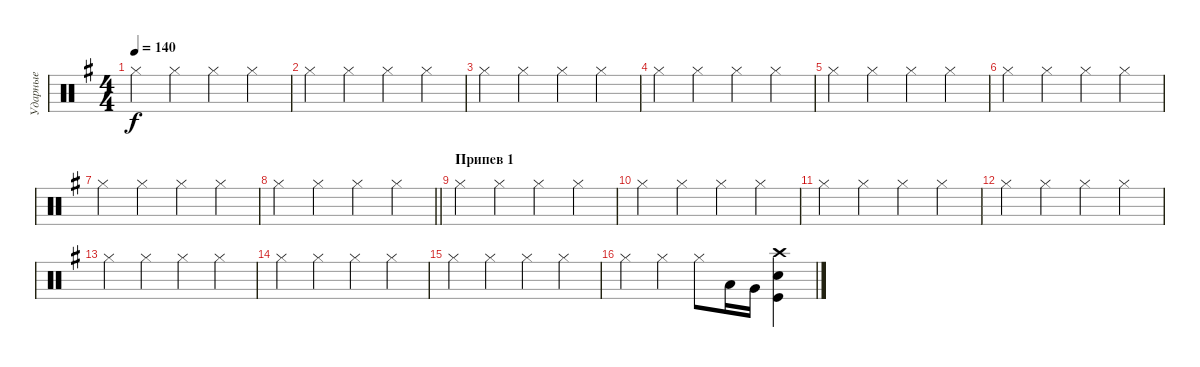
\track ("Ударные" "Ударные") {instrument percussion}
\staff {score}
\articulation defaults
\ts (4 4)
\tempo 140
\clef neutral
\ks g "Hi-Hat (closed)".4{dy f} "Hi-Hat (closed)".4 "Hi-Hat (closed)".4 "Hi-Hat (closed)".4
|
"Hi-Hat (closed)".4 "Hi-Hat (closed)".4 "Hi-Hat (closed)".4 "Hi-Hat (closed)".4 |
"Hi-Hat (closed)".4 "Hi-Hat (closed)".4 "Hi-Hat (closed)".4 "Hi-Hat (closed)".4 |
"Hi-Hat (closed)".4 "Hi-Hat (closed)".4 "Hi-Hat (closed)".4 "Hi-Hat (closed)".4 |
"Hi-Hat (closed)".4 "Hi-Hat (closed)".4 "Hi-Hat (closed)".4 "Hi-Hat (closed)".4 |
"Hi-Hat (closed)".4 "Hi-Hat (closed)".4 "Hi-Hat (closed)".4 "Hi-Hat (closed)".4 |
"Hi-Hat (closed)".4 "Hi-Hat (closed)".4 "Hi-Hat (closed)".4 "Hi-Hat (closed)".4 |
\barLineRight lightlight "Hi-Hat (closed)".4 "Hi-Hat (closed)".4 "Hi-Hat (closed)".4 "Hi-Hat (closed)".4
|
\section ("" "Припев 1")
"Hi-Hat (closed)".4 "Hi-Hat (closed)".4 "Hi-Hat (closed)".4 "Hi-Hat (closed)".4 |
"Hi-Hat (closed)".4 "Hi-Hat (closed)".4 "Hi-Hat (closed)".4 "Hi-Hat (closed)".4 |
"Hi-Hat (closed)".4 "Hi-Hat (closed)".4 "Hi-Hat (closed)".4 "Hi-Hat (closed)".4 |
"Hi-Hat (closed)".4 "Hi-Hat (closed)".4 "Hi-Hat (closed)".4 "Hi-Hat (closed)".4 |
"Hi-Hat (closed)".4 "Hi-Hat (closed)".4 "Hi-Hat (closed)".4 "Hi-Hat (closed)".4 |
"Hi-Hat (closed)".4 "Hi-Hat (closed)".4 "Hi-Hat (closed)".4 "Hi-Hat (closed)".4 |
"Hi-Hat (closed)".4 "Hi-Hat (closed)".4 "Hi-Hat (closed)".4 "Hi-Hat (closed)".4 |
"Hi-Hat (closed)".4 "Hi-Hat (closed)".4 "Hi-Hat (closed)".8 "Low Tom (hit)".16 "Very Low Tom (hit)".16 ("Kick (hit)" "Snare (hit) 2" "Crash high (hit)").4
